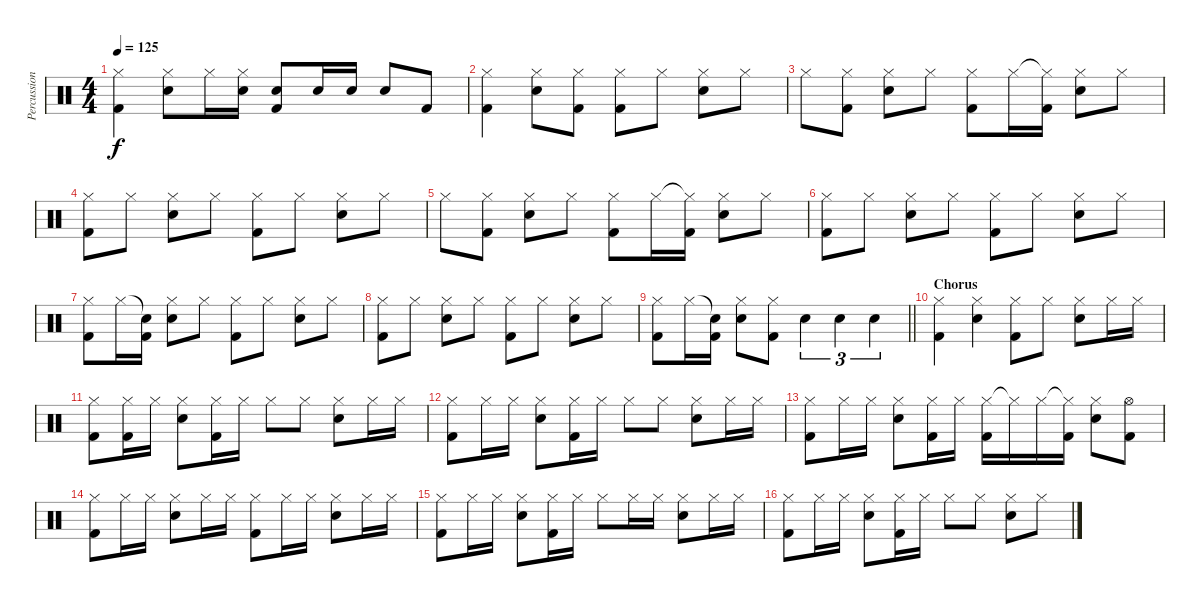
\track ("Percussion" "Percussion") {instrument percussion}
\staff {score}
\articulation defaults
\ts (4 4)
\tempo 125
\clef neutral
\ks c
("Hi-Hat (closed)" "Kick (hit) 2").4{dy f} ("Hi-Hat (closed)" "Electric Snare (hit)").8 "Hi-Hat (closed)".16 ("Hi-Hat (closed)" "Electric Snare (hit)").16 ("Electric Snare (hit)" "Kick (hit) 2").8 "Electric Snare (hit)".16 "Electric Snare (hit)".16 "Electric Snare (hit)".8 "Kick (hit) 2".8 |
("Hi-Hat (closed)" "Kick (hit) 2").4 ("Hi-Hat (closed)" "Electric Snare (hit)").8 ("Hi-Hat (closed)" "Kick (hit) 2").8 ("Hi-Hat (closed)" "Kick (hit) 2").8 "Hi-Hat (closed)".8 ("Hi-Hat (closed)" "Electric Snare (hit)").8 "Hi-Hat (closed)".8 |
"Hi-Hat (closed)".8 ("Hi-Hat (closed)" "Kick (hit) 2").8 ("Hi-Hat (closed)" "Electric Snare (hit)").8 "Hi-Hat (closed)".8 ("Hi-Hat (closed)" "Kick (hit) 2").8 "Hi-Hat (closed)".16 ("Hi-Hat (closed)"{t} "Kick (hit) 2").16 ("Hi-Hat (closed)" "Electric Snare (hit)").8 "Hi-Hat (closed)".8 |
("Hi-Hat (closed)" "Kick (hit) 2").8 "Hi-Hat (closed)".8 ("Hi-Hat (closed)" "Electric Snare (hit)").8 "Hi-Hat (closed)".8 ("Hi-Hat (closed)" "Kick (hit) 2").8 "Hi-Hat (closed)".8 ("Hi-Hat (closed)" "Electric Snare (hit)").8 "Hi-Hat (closed)".8 |
"Hi-Hat (closed)".8 ("Hi-Hat (closed)" "Kick (hit) 2").8 ("Hi-Hat (closed)" "Electric Snare (hit)").8 "Hi-Hat (closed)".8 ("Hi-Hat (closed)" "Kick (hit) 2").8 "Hi-Hat (closed)".16 ("Hi-Hat (closed)"{t} "Kick (hit) 2").16 ("Hi-Hat (closed)" "Electric Snare (hit)").8 "Hi-Hat (closed)".8 |
("Hi-Hat (closed)" "Kick (hit) 2").8 "Hi-Hat (closed)".8 ("Hi-Hat (closed)" "Electric Snare (hit)").8 "Hi-Hat (closed)".8 ("Hi-Hat (closed)" "Kick (hit) 2").8 "Hi-Hat (closed)".8 ("Hi-Hat (closed)" "Electric Snare (hit)").8 "Hi-Hat (closed)".8 |
("Hi-Hat (closed)" "Kick (hit) 2").8 "Hi-Hat (closed)".16 ("Snare (hit)"{t} "Kick (hit) 2").16 ("Hi-Hat (closed)" "Electric Snare (hit)").8 "Hi-Hat (closed)".8 ("Hi-Hat (closed)" "Kick (hit) 2").8 "Hi-Hat (closed)".8 ("Hi-Hat (closed)" "Electric Snare (hit)").8 "Hi-Hat (closed)".8 |
("Hi-Hat (closed)" "Kick (hit) 2").8 "Hi-Hat (closed)".8 ("Hi-Hat (closed)" "Electric Snare (hit)").8 "Hi-Hat (closed)".8 ("Hi-Hat (closed)" "Kick (hit) 2").8 "Hi-Hat (closed)".8 ("Hi-Hat (closed)" "Electric Snare (hit)").8 "Hi-Hat (closed)".8 |
\barLineRight lightlight
("Hi-Hat (closed)" "Kick (hit) 2").8 "Hi-Hat (closed)".16 ("Snare (hit)"{t} "Kick (hit) 2").16 ("Hi-Hat (closed)" "Electric Snare (hit)").8 ("Hi-Hat (closed)" "Kick (hit) 2").8 "Electric Snare (hit)".4{tu (3 2)} "Electric Snare (hit)".4{tu (3 2)} "Electric Snare (hit)".4{tu (3 2)} |
\section ("" "Chorus")
("Hi-Hat (closed)" "Kick (hit) 2").4 ("Hi-Hat (closed)" "Electric Snare (hit)").4 ("Hi-Hat (closed)" "Kick (hit) 2").8 "Hi-Hat (closed)".8 ("Hi-Hat (closed)" "Electric Snare (hit)").8 "Hi-Hat (closed)".16 "Hi-Hat (closed)".16 |
("Hi-Hat (closed)" "Kick (hit) 2").8 ("Hi-Hat (closed)" "Kick (hit) 2").16 "Hi-Hat (closed)".16 ("Hi-Hat (closed)" "Electric Snare (hit)").8 ("Hi-Hat (closed)" "Kick (hit) 2").16 "Hi-Hat (closed)".16 "Hi-Hat (closed)".8 "Hi-Hat (closed)".8 ("Hi-Hat (closed)" "Electric Snare (hit)").8 "Hi-Hat (closed)".16 "Hi-Hat (closed)".16 |
("Hi-Hat (closed)" "Kick (hit) 2").8 "Hi-Hat (closed)".16 "Hi-Hat (closed)".16 ("Hi-Hat (closed)" "Electric Snare (hit)").8 ("Hi-Hat (closed)" "Kick (hit) 2").16 "Hi-Hat (closed)".16 "Hi-Hat (closed)".8 "Hi-Hat (closed)".8 ("Hi-Hat (closed)" "Electric Snare (hit)").8 "Hi-Hat (closed)".16 "Hi-Hat (closed)".16 |
("Hi-Hat (closed)" "Kick (hit) 2").8 "Hi-Hat (closed)".16 "Hi-Hat (closed)".16 ("Hi-Hat (closed)" "Electric Snare (hit)").8 ("Hi-Hat (closed)" "Kick (hit) 2").16 "Hi-Hat (closed)".16 ("Hi-Hat (closed)" "Kick (hit) 2").16 "Hi-Hat (closed)"{t}.16 "Hi-Hat (closed)".16 ("Hi-Hat (closed)"{t} "Kick (hit) 2").16 ("Hi-Hat (closed)" "Electric Snare (hit)").8 ("Hi-Hat (open)" "Kick (hit) 2").8 |
("Hi-Hat (closed)" "Kick (hit) 2").8 "Hi-Hat (closed)".16 "Hi-Hat (closed)".16 ("Hi-Hat (closed)" "Electric Snare (hit)").8 "Hi-Hat (closed)".16 "Hi-Hat (closed)".16 ("Hi-Hat (closed)" "Kick (hit) 2").8 "Hi-Hat (closed)".16 "Hi-Hat (closed)".16 ("Hi-Hat (closed)" "Electric Snare (hit)").8 "Hi-Hat (closed)".16 "Hi-Hat (closed)".16 |
("Hi-Hat (closed)" "Kick (hit) 2").8 "Hi-Hat (closed)".16 "Hi-Hat (closed)".16 ("Hi-Hat (closed)" "Electric Snare (hit)").8 ("Hi-Hat (closed)" "Kick (hit) 2").16 "Hi-Hat (closed)".16 "Hi-Hat (closed)".8 "Hi-Hat (closed)".16 "Hi-Hat (closed)".16 ("Hi-Hat (closed)" "Electric Snare (hit)").8 "Hi-Hat (closed)".16 "Hi-Hat (closed)".16 |
("Hi-Hat (closed)" "Kick (hit) 2").8 "Hi-Hat (closed)".16 "Hi-Hat (closed)".16 ("Hi-Hat (closed)" "Electric Snare (hit)").8 ("Hi-Hat (closed)" "Kick (hit) 2").16 "Hi-Hat (closed)".16 "Hi-Hat (closed)".8 "Hi-Hat (closed)".8 ("Hi-Hat (closed)" "Electric Snare (hit)").8 "Hi-Hat (closed)".8
